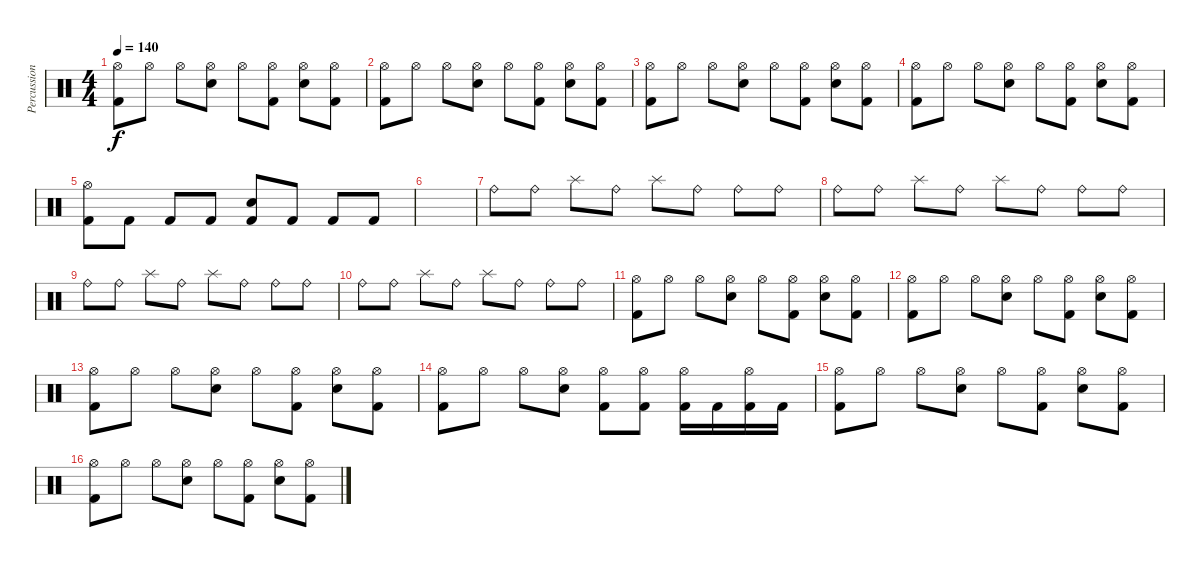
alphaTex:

\track ("Percussion" "Percussion") {instrument percussion}
\staff {score}
\articulation defaults
\ts (4 4)
\tempo 140
\clef neutral
\ks c
("Hi-Hat (open)" "Kick (hit) 2").8{dy f} "Hi-Hat (open)".8 "Hi-Hat (open)".8 ("Hi-Hat (open)" "Electric Snare (hit)").8 "Hi-Hat (open)".8 ("Hi-Hat (open)" "Kick (hit) 2").8 ("Hi-Hat (open)" "Electric Snare (hit)").8 ("Hi-Hat (open)" "Kick (hit) 2").8 |
("Hi-Hat (open)" "Kick (hit) 2").8 "Hi-Hat (open)".8 "Hi-Hat (open)".8 ("Hi-Hat (open)" "Electric Snare (hit)").8 "Hi-Hat (open)".8 ("Hi-Hat (open)" "Kick (hit) 2").8 ("Hi-Hat (open)" "Electric Snare (hit)").8 ("Hi-Hat (open)" "Kick (hit) 2").8 |
("Hi-Hat (open)" "Kick (hit) 2").8 "Hi-Hat (open)".8 "Hi-Hat (open)".8 ("Hi-Hat (open)" "Electric Snare (hit)").8 "Hi-Hat (open)".8 ("Hi-Hat (open)" "Kick (hit) 2").8 ("Hi-Hat (open)" "Electric Snare (hit)").8 ("Hi-Hat (open)" "Kick (hit) 2").8 |
("Hi-Hat (open)" "Kick (hit) 2").8 "Hi-Hat (open)".8 "Hi-Hat (open)".8 ("Hi-Hat (open)" "Electric Snare (hit)").8 "Hi-Hat (open)".8 ("Hi-Hat (open)" "Kick (hit) 2").8 ("Hi-Hat (open)" "Electric Snare (hit)").8 ("Hi-Hat (open)" "Kick (hit) 2").8 |
("Hi-Hat (open)" "Kick (hit) 2").8 "Kick (hit) 2".8 "Kick (hit) 2".8 "Kick (hit) 2".8 ("Electric Snare (hit)" "Kick (hit) 2").8 "Kick (hit) 2".8 "Kick (hit) 2".8 "Kick (hit) 2".8 |
|
"Ride (bell)".8 "Ride (bell)".8 "Splash (hit)".8 "Ride (bell)".8 "Splash (hit)".8 "Ride (bell)".8 "Ride (bell)".8 "Ride (bell)".8 |
"Ride (bell)".8 "Ride (bell)".8 "Splash (hit)".8 "Ride (bell)".8 "Splash (hit)".8 "Ride (bell)".8 "Ride (bell)".8 "Ride (bell)".8 |
"Ride (bell)".8 "Ride (bell)".8 "Splash (hit)".8 "Ride (bell)".8 "Splash (hit)".8 "Ride (bell)".8 "Ride (bell)".8 "Ride (bell)".8 |
"Ride (bell)".8 "Ride (bell)".8 "Splash (hit)".8 "Ride (bell)".8 "Splash (hit)".8 "Ride (bell)".8 "Ride (bell)".8 "Ride (bell)".8 |
("Hi-Hat (open)" "Kick (hit) 2").8 "Hi-Hat (open)".8 "Hi-Hat (open)".8 ("Hi-Hat (open)" "Electric Snare (hit)").8 "Hi-Hat (open)".8 ("Hi-Hat (open)" "Kick (hit) 2").8 ("Hi-Hat (open)" "Electric Snare (hit)").8 ("Hi-Hat (open)" "Kick (hit) 2").8 |
("Hi-Hat (open)" "Kick (hit) 2").8 "Hi-Hat (open)".8 "Hi-Hat (open)".8 ("Hi-Hat (open)" "Electric Snare (hit)").8 "Hi-Hat (open)".8 ("Hi-Hat (open)" "Kick (hit) 2").8 ("Hi-Hat (open)" "Electric Snare (hit)").8 ("Hi-Hat (open)" "Kick (hit) 2").8 |
("Hi-Hat (open)" "Kick (hit) 2").8 "Hi-Hat (open)".8 "Hi-Hat (open)".8 ("Hi-Hat (open)" "Electric Snare (hit)").8 "Hi-Hat (open)".8 ("Hi-Hat (open)" "Kick (hit) 2").8 ("Hi-Hat (open)" "Electric Snare (hit)").8 ("Hi-Hat (open)" "Kick (hit) 2").8 |
("Hi-Hat (open)" "Kick (hit) 2").8 "Hi-Hat (open)".8 "Hi-Hat (open)".8 ("Hi-Hat (open)" "Electric Snare (hit)").8 ("Hi-Hat (open)" "Kick (hit) 2").8 ("Hi-Hat (open)" "Kick (hit) 2").8 ("Hi-Hat (open)" "Kick (hit) 2").16 "Kick (hit) 2".16 ("Hi-Hat (open)" "Kick (hit) 2").16 "Kick (hit) 2".16 |
("Hi-Hat (open)" "Kick (hit) 2").8 "Hi-Hat (open)".8 "Hi-Hat (open)".8 ("Hi-Hat (open)" "Electric Snare (hit)").8 "Hi-Hat (open)".8 ("Hi-Hat (open)" "Kick (hit) 2").8 ("Hi-Hat (open)" "Electric Snare (hit)").8 ("Hi-Hat (open)" "Kick (hit) 2").8 |
("Hi-Hat (open)" "Kick (hit) 2").8 "Hi-Hat (open)".8 "Hi-Hat (open)".8 ("Hi-Hat (open)" "Electric Snare (hit)").8 "Hi-Hat (open)".8 ("Hi-Hat (open)" "Kick (hit) 2").8 ("Hi-Hat (open)" "Electric Snare (hit)").8 ("Hi-Hat (open)" "Kick (hit) 2").8
